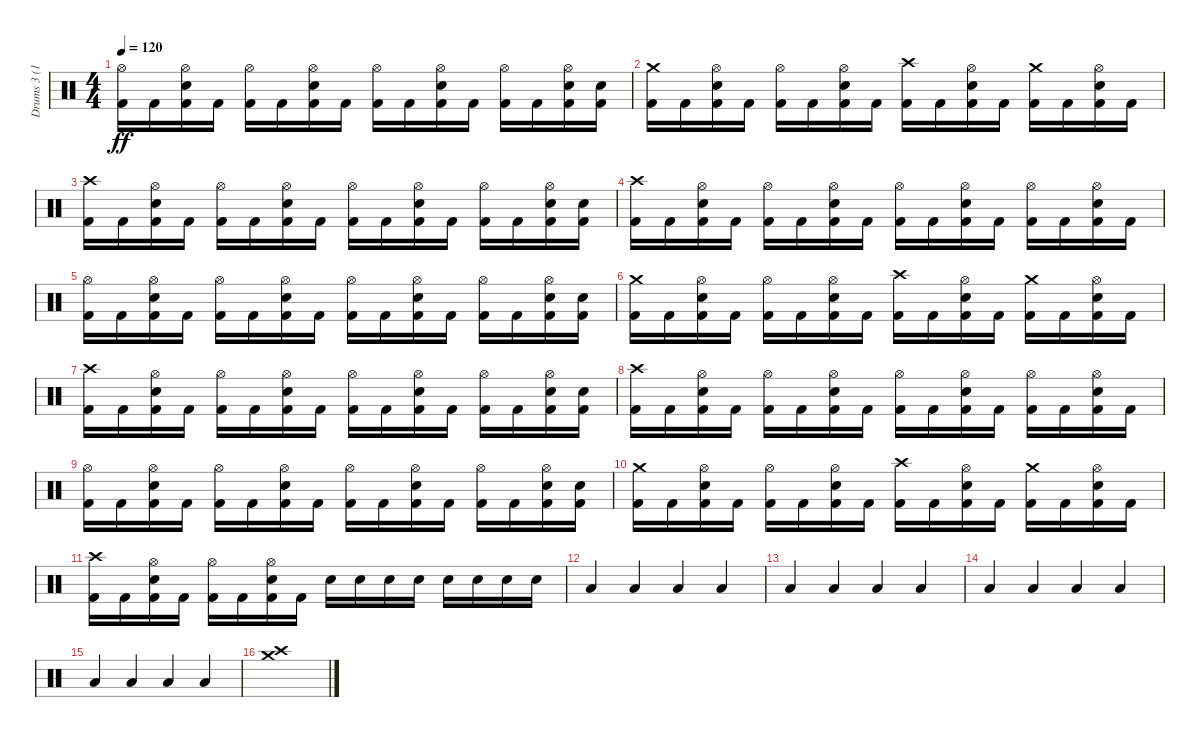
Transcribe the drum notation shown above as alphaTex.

\track ("Drums 3 (16)" "Drums 3 (1") {instrument percussion}
\staff {score}
\articulation defaults
\ts (4 4)
\tempo 120
\clef neutral
\ks c
("Kick (hit) 2" "Hi-Hat (open)").16{dy ff} "Kick (hit) 2".16 ("Kick (hit) 2" "Snare (hit) 2" "Hi-Hat (open)").16 "Kick (hit) 2".16 ("Kick (hit) 2" "Hi-Hat (open)").16 "Kick (hit) 2".16 ("Kick (hit) 2" "Snare (hit) 2" "Hi-Hat (open)").16 "Kick (hit) 2".16 ("Kick (hit) 2" "Hi-Hat (open)").16 "Kick (hit) 2".16 ("Kick (hit) 2" "Snare (hit) 2" "Hi-Hat (open)").16 "Kick (hit) 2".16 ("Kick (hit) 2" "Hi-Hat (open)").16 "Kick (hit) 2".16 ("Kick (hit) 2" "Snare (hit) 2" "Hi-Hat (open)").16 ("Kick (hit) 2" "Snare (hit) 2").16 |
("Kick (hit) 2" "Crash medium (hit)").16 "Kick (hit) 2".16 ("Kick (hit) 2" "Snare (hit) 2" "Hi-Hat (open)").16 "Kick (hit) 2".16 ("Kick (hit) 2" "Hi-Hat (open)").16 "Kick (hit) 2".16 ("Kick (hit) 2" "Snare (hit) 2" "Hi-Hat (open)").16 "Kick (hit) 2".16 ("Kick (hit) 2" "Crash high (hit)").16 "Kick (hit) 2".16 ("Kick (hit) 2" "Snare (hit) 2" "Hi-Hat (open)").16 "Kick (hit) 2".16 ("Kick (hit) 2" "Crash medium (hit)").16 "Kick (hit) 2".16 ("Kick (hit) 2" "Snare (hit) 2" "Hi-Hat (open)").16 "Kick (hit) 2".16 |
("Kick (hit) 2" "Crash high (hit)").16 "Kick (hit) 2".16 ("Kick (hit) 2" "Snare (hit) 2" "Hi-Hat (open)").16 "Kick (hit) 2".16 ("Kick (hit) 2" "Hi-Hat (open)").16 "Kick (hit) 2".16 ("Kick (hit) 2" "Snare (hit) 2" "Hi-Hat (open)").16 "Kick (hit) 2".16 ("Kick (hit) 2" "Hi-Hat (open)").16 "Kick (hit) 2".16 ("Kick (hit) 2" "Snare (hit) 2" "Hi-Hat (open)").16 "Kick (hit) 2".16 ("Kick (hit) 2" "Hi-Hat (open)").16 "Kick (hit) 2".16 ("Kick (hit) 2" "Snare (hit) 2" "Hi-Hat (open)").16 ("Kick (hit) 2" "Snare (hit) 2").16 |
("Kick (hit) 2" "Crash high (hit)").16 "Kick (hit) 2".16 ("Kick (hit) 2" "Snare (hit) 2" "Hi-Hat (open)").16 "Kick (hit) 2".16 ("Kick (hit) 2" "Hi-Hat (open)").16 "Kick (hit) 2".16 ("Kick (hit) 2" "Snare (hit) 2" "Hi-Hat (open)").16 "Kick (hit) 2".16 ("Kick (hit) 2" "Hi-Hat (open)").16 "Kick (hit) 2".16 ("Kick (hit) 2" "Snare (hit) 2" "Hi-Hat (open)").16 "Kick (hit) 2".16 ("Kick (hit) 2" "Hi-Hat (open)").16 "Kick (hit) 2".16 ("Kick (hit) 2" "Snare (hit) 2" "Hi-Hat (open)").16 "Kick (hit) 2".16 |
("Kick (hit) 2" "Hi-Hat (open)").16 "Kick (hit) 2".16 ("Kick (hit) 2" "Snare (hit) 2" "Hi-Hat (open)").16 "Kick (hit) 2".16 ("Kick (hit) 2" "Hi-Hat (open)").16 "Kick (hit) 2".16 ("Kick (hit) 2" "Snare (hit) 2" "Hi-Hat (open)").16 "Kick (hit) 2".16 ("Kick (hit) 2" "Hi-Hat (open)").16 "Kick (hit) 2".16 ("Kick (hit) 2" "Snare (hit) 2" "Hi-Hat (open)").16 "Kick (hit) 2".16 ("Kick (hit) 2" "Hi-Hat (open)").16 "Kick (hit) 2".16 ("Kick (hit) 2" "Snare (hit) 2" "Hi-Hat (open)").16 ("Kick (hit) 2" "Snare (hit) 2").16 |
("Kick (hit) 2" "Crash medium (hit)").16 "Kick (hit) 2".16 ("Kick (hit) 2" "Snare (hit) 2" "Hi-Hat (open)").16 "Kick (hit) 2".16 ("Kick (hit) 2" "Hi-Hat (open)").16 "Kick (hit) 2".16 ("Kick (hit) 2" "Snare (hit) 2" "Hi-Hat (open)").16 "Kick (hit) 2".16 ("Kick (hit) 2" "Crash high (hit)").16 "Kick (hit) 2".16 ("Kick (hit) 2" "Snare (hit) 2" "Hi-Hat (open)").16 "Kick (hit) 2".16 ("Kick (hit) 2" "Crash medium (hit)").16 "Kick (hit) 2".16 ("Kick (hit) 2" "Snare (hit) 2" "Hi-Hat (open)").16 "Kick (hit) 2".16 |
("Kick (hit) 2" "Crash high (hit)").16 "Kick (hit) 2".16 ("Kick (hit) 2" "Snare (hit) 2" "Hi-Hat (open)").16 "Kick (hit) 2".16 ("Kick (hit) 2" "Hi-Hat (open)").16 "Kick (hit) 2".16 ("Kick (hit) 2" "Snare (hit) 2" "Hi-Hat (open)").16 "Kick (hit) 2".16 ("Kick (hit) 2" "Hi-Hat (open)").16 "Kick (hit) 2".16 ("Kick (hit) 2" "Snare (hit) 2" "Hi-Hat (open)").16 "Kick (hit) 2".16 ("Kick (hit) 2" "Hi-Hat (open)").16 "Kick (hit) 2".16 ("Kick (hit) 2" "Snare (hit) 2" "Hi-Hat (open)").16 ("Kick (hit) 2" "Snare (hit) 2").16 |
("Kick (hit) 2" "Crash high (hit)").16 "Kick (hit) 2".16 ("Kick (hit) 2" "Snare (hit) 2" "Hi-Hat (open)").16 "Kick (hit) 2".16 ("Kick (hit) 2" "Hi-Hat (open)").16 "Kick (hit) 2".16 ("Kick (hit) 2" "Snare (hit) 2" "Hi-Hat (open)").16 "Kick (hit) 2".16 ("Kick (hit) 2" "Hi-Hat (open)").16 "Kick (hit) 2".16 ("Kick (hit) 2" "Snare (hit) 2" "Hi-Hat (open)").16 "Kick (hit) 2".16 ("Kick (hit) 2" "Hi-Hat (open)").16 "Kick (hit) 2".16 ("Kick (hit) 2" "Snare (hit) 2" "Hi-Hat (open)").16 "Kick (hit) 2".16 |
("Kick (hit) 2" "Hi-Hat (open)").16 "Kick (hit) 2".16 ("Kick (hit) 2" "Snare (hit) 2" "Hi-Hat (open)").16 "Kick (hit) 2".16 ("Kick (hit) 2" "Hi-Hat (open)").16 "Kick (hit) 2".16 ("Kick (hit) 2" "Snare (hit) 2" "Hi-Hat (open)").16 "Kick (hit) 2".16 ("Kick (hit) 2" "Hi-Hat (open)").16 "Kick (hit) 2".16 ("Kick (hit) 2" "Snare (hit) 2" "Hi-Hat (open)").16 "Kick (hit) 2".16 ("Kick (hit) 2" "Hi-Hat (open)").16 "Kick (hit) 2".16 ("Kick (hit) 2" "Snare (hit) 2" "Hi-Hat (open)").16 ("Kick (hit) 2" "Snare (hit) 2").16 |
("Kick (hit) 2" "Crash medium (hit)").16 "Kick (hit) 2".16 ("Kick (hit) 2" "Snare (hit) 2" "Hi-Hat (open)").16 "Kick (hit) 2".16 ("Kick (hit) 2" "Hi-Hat (open)").16 "Kick (hit) 2".16 ("Kick (hit) 2" "Snare (hit) 2" "Hi-Hat (open)").16 "Kick (hit) 2".16 ("Kick (hit) 2" "Crash high (hit)").16 "Kick (hit) 2".16 ("Kick (hit) 2" "Snare (hit) 2" "Hi-Hat (open)").16 "Kick (hit) 2".16 ("Kick (hit) 2" "Crash medium (hit)").16 "Kick (hit) 2".16 ("Kick (hit) 2" "Snare (hit) 2" "Hi-Hat (open)").16 "Kick (hit) 2".16 |
("Kick (hit) 2" "Crash high (hit)").16 "Kick (hit) 2".16 ("Kick (hit) 2" "Snare (hit) 2" "Hi-Hat (open)").16 "Kick (hit) 2".16 ("Kick (hit) 2" "Hi-Hat (open)").16 "Kick (hit) 2".16 ("Kick (hit) 2" "Snare (hit) 2" "Hi-Hat (open)").16 "Kick (hit) 2".16 "Snare (hit) 2".16 "Snare (hit) 2".16 "Snare (hit) 2".16 "Snare (hit) 2".16 "Snare (hit) 2".16 "Snare (hit) 2".16 "Snare (hit) 2".16 "Snare (hit) 2".16 |
"Low Floor Tom (hit)".4 "Low Floor Tom (hit)".4 "Low Floor Tom (hit)".4 "Low Floor Tom (hit)".4 |
"Low Floor Tom (hit)".4 "Low Floor Tom (hit)".4 "Low Floor Tom (hit)".4 "Low Floor Tom (hit)".4 |
"Low Floor Tom (hit)".4 "Low Floor Tom (hit)".4 "Low Floor Tom (hit)".4 "Low Floor Tom (hit)".4 |
"Low Floor Tom (hit)".4 "Low Floor Tom (hit)".4 "Low Floor Tom (hit)".4 "Low Floor Tom (hit)".4 |
("Crash high (hit)" "Crash medium (hit)").1
